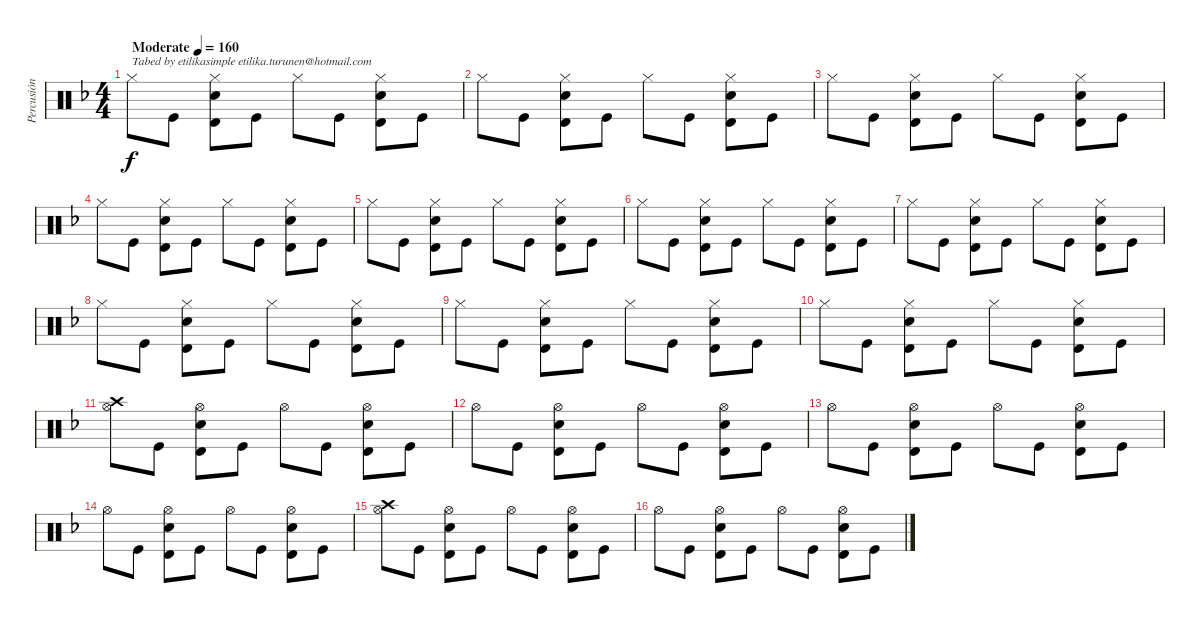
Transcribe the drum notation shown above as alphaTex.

\track ("Percusión" "Percusión") {instrument percussion}
\staff {score}
\articulation defaults
\ts (4 4)
\tempo (160 "Moderate")
\clef neutral
\ks dminor "Hi-Hat (closed)".8{txt "Tabed by etilikasimple etilika.turunen@hotmail.com" dy f} "Kick (hit)".8
("Timbale high (hit)" "Hi-Hat (closed)" "Electric Snare (hit)").8 "Kick (hit)".8 "Hi-Hat (closed)".8 "Kick (hit)".8 ("Timbale high (hit)" "Hi-Hat (closed)" "Electric Snare (hit)").8 "Kick (hit)".8 |
"Hi-Hat (closed)".8 "Kick (hit)".8 ("Timbale high (hit)" "Hi-Hat (closed)" "Electric Snare (hit)").8 "Kick (hit)".8 "Hi-Hat (closed)".8 "Kick (hit)".8 ("Timbale high (hit)" "Hi-Hat (closed)" "Electric Snare (hit)").8 "Kick (hit)".8 |
"Hi-Hat (closed)".8 "Kick (hit)".8 ("Timbale high (hit)" "Hi-Hat (closed)" "Electric Snare (hit)").8 "Kick (hit)".8 "Hi-Hat (closed)".8 "Kick (hit)".8 ("Timbale high (hit)" "Hi-Hat (closed)" "Electric Snare (hit)").8 "Kick (hit)".8 |
"Hi-Hat (closed)".8 "Kick (hit)".8 ("Timbale high (hit)" "Hi-Hat (closed)" "Electric Snare (hit)").8 "Kick (hit)".8 "Hi-Hat (closed)".8 "Kick (hit)".8 ("Timbale high (hit)" "Hi-Hat (closed)" "Electric Snare (hit)").8 "Kick (hit)".8 |
"Hi-Hat (closed)".8 "Kick (hit)".8 ("Timbale high (hit)" "Hi-Hat (closed)" "Electric Snare (hit)").8 "Kick (hit)".8 "Hi-Hat (closed)".8 "Kick (hit)".8 ("Timbale high (hit)" "Hi-Hat (closed)" "Electric Snare (hit)").8 "Kick (hit)".8 |
"Hi-Hat (closed)".8 "Kick (hit)".8 ("Timbale high (hit)" "Hi-Hat (closed)" "Electric Snare (hit)").8 "Kick (hit)".8 "Hi-Hat (closed)".8 "Kick (hit)".8 ("Timbale high (hit)" "Hi-Hat (closed)" "Electric Snare (hit)").8 "Kick (hit)".8 |
"Hi-Hat (closed)".8 "Kick (hit)".8 ("Timbale high (hit)" "Hi-Hat (closed)" "Electric Snare (hit)").8 "Kick (hit)".8 "Hi-Hat (closed)".8 "Kick (hit)".8 ("Timbale high (hit)" "Hi-Hat (closed)" "Electric Snare (hit)").8 "Kick (hit)".8 |
"Hi-Hat (closed)".8 "Kick (hit)".8 ("Timbale high (hit)" "Hi-Hat (closed)" "Electric Snare (hit)").8 "Kick (hit)".8 "Hi-Hat (closed)".8 "Kick (hit)".8 ("Timbale high (hit)" "Hi-Hat (closed)" "Electric Snare (hit)").8 "Kick (hit)".8 |
"Hi-Hat (closed)".8 "Kick (hit)".8 ("Timbale high (hit)" "Hi-Hat (closed)" "Electric Snare (hit)").8 "Kick (hit)".8 "Hi-Hat (closed)".8 "Kick (hit)".8 ("Timbale high (hit)" "Hi-Hat (closed)" "Electric Snare (hit)").8 "Kick (hit)".8 |
"Hi-Hat (closed)".8 "Kick (hit)".8 ("Timbale high (hit)" "Hi-Hat (closed)" "Electric Snare (hit)").8 "Kick (hit)".8 "Hi-Hat (closed)".8 "Kick (hit)".8 ("Timbale high (hit)" "Hi-Hat (closed)" "Snare (hit) 2").8 "Kick (hit)".8 |
("Hi-Hat (open)" "Crash high (hit)").8 "Kick (hit)".8 ("Timbale high (hit)" "Hi-Hat (open)" "Electric Snare (hit)").8 "Kick (hit)".8 "Hi-Hat (open)".8 "Kick (hit)".8 ("Timbale high (hit)" "Hi-Hat (open)" "Electric Snare (hit)").8 "Kick (hit)".8 |
"Hi-Hat (open)".8 "Kick (hit)".8 ("Timbale high (hit)" "Hi-Hat (open)" "Electric Snare (hit)").8 "Kick (hit)".8 "Hi-Hat (open)".8 "Kick (hit)".8 ("Timbale high (hit)" "Hi-Hat (open)" "Electric Snare (hit)").8 "Kick (hit)".8 |
"Hi-Hat (open)".8 "Kick (hit)".8 ("Timbale high (hit)" "Hi-Hat (open)" "Electric Snare (hit)").8 "Kick (hit)".8 "Hi-Hat (open)".8 "Kick (hit)".8 ("Timbale high (hit)" "Hi-Hat (open)" "Electric Snare (hit)").8 "Kick (hit)".8 |
"Hi-Hat (open)".8 "Kick (hit)".8 ("Timbale high (hit)" "Hi-Hat (open)" "Electric Snare (hit)").8 "Kick (hit)".8 "Hi-Hat (open)".8 "Kick (hit)".8 ("Timbale high (hit)" "Hi-Hat (open)" "Electric Snare (hit)").8 "Kick (hit)".8 |
("Hi-Hat (open)" "Crash high (hit)").8 "Kick (hit)".8 ("Timbale high (hit)" "Hi-Hat (open)" "Electric Snare (hit)").8 "Kick (hit)".8 "Hi-Hat (open)".8 "Kick (hit)".8 ("Timbale high (hit)" "Hi-Hat (open)" "Electric Snare (hit)").8 "Kick (hit)".8 |
"Hi-Hat (open)".8 "Kick (hit)".8 ("Timbale high (hit)" "Hi-Hat (open)" "Electric Snare (hit)").8 "Kick (hit)".8 "Hi-Hat (open)".8 "Kick (hit)".8 ("Timbale high (hit)" "Hi-Hat (open)" "Electric Snare (hit)").8 "Kick (hit)".8
